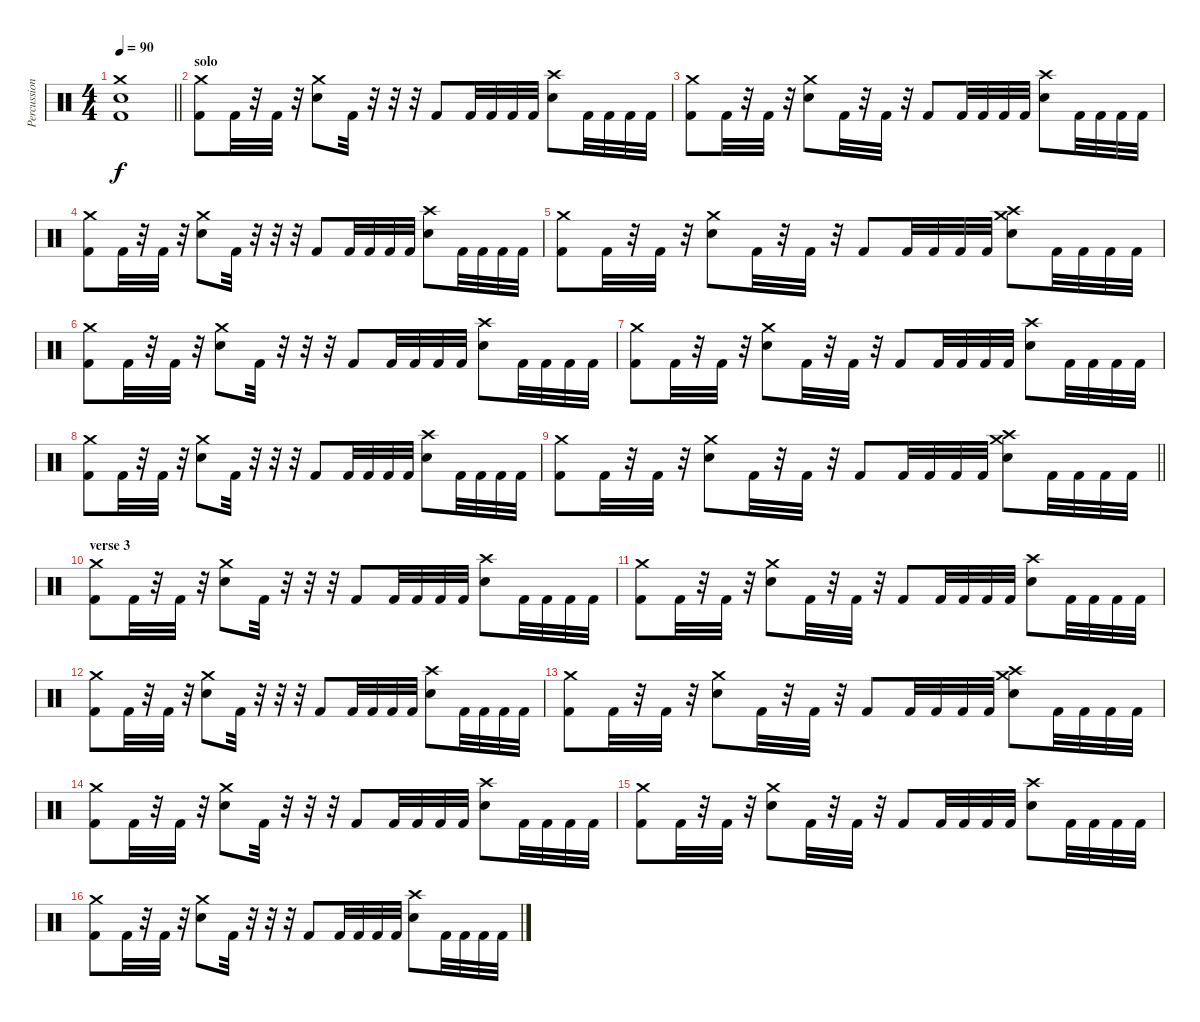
\track ("Percussion" "Percussion") {instrument percussion}
\staff {score}
\articulation defaults
\ts (4 4)
\tempo 90
\clef neutral
\barLineRight lightlight
\ks c
("Crash medium (hit)" "Electric Snare (hit)" "Kick (hit) 2").1{dy f} |
\section ("" "solo")
("Crash medium (hit)" "Kick (hit) 2").8 "Kick (hit) 2".32 r.32 "Kick (hit) 2".32 r.32 ("Crash medium (hit)" "Electric Snare (hit)").8 "Kick (hit) 2".32 r.32 r.32 r.32 "Kick (hit) 2".8 "Kick (hit) 2".32 "Kick (hit) 2".32 "Kick (hit) 2".32 "Kick (hit) 2".32 ("Crash high (hit)" "Electric Snare (hit)").8 "Kick (hit) 2".32 "Kick (hit) 2".32 "Kick (hit) 2".32 "Kick (hit) 2".32 |
("Crash medium (hit)" "Kick (hit) 2").8 "Kick (hit) 2".32 r.32 "Kick (hit) 2".32 r.32 ("Crash medium (hit)" "Electric Snare (hit)").8 "Kick (hit) 2".32 r.32 "Kick (hit) 2".32 r.32 "Kick (hit) 2".8 "Kick (hit) 2".32 "Kick (hit) 2".32 "Kick (hit) 2".32 "Kick (hit) 2".32 ("Crash high (hit)" "Electric Snare (hit)").8 "Kick (hit) 2".32 "Kick (hit) 2".32 "Kick (hit) 2".32 "Kick (hit) 2".32 |
("Crash medium (hit)" "Kick (hit) 2").8 "Kick (hit) 2".32 r.32 "Kick (hit) 2".32 r.32 ("Crash medium (hit)" "Electric Snare (hit)").8 "Kick (hit) 2".32 r.32 r.32 r.32 "Kick (hit) 2".8 "Kick (hit) 2".32 "Kick (hit) 2".32 "Kick (hit) 2".32 "Kick (hit) 2".32 ("Crash high (hit)" "Electric Snare (hit)").8 "Kick (hit) 2".32 "Kick (hit) 2".32 "Kick (hit) 2".32 "Kick (hit) 2".32 |
("Crash medium (hit)" "Kick (hit) 2").8 "Kick (hit) 2".32 r.32 "Kick (hit) 2".32 r.32 ("Crash medium (hit)" "Electric Snare (hit)").8 "Kick (hit) 2".32 r.32 "Kick (hit) 2".32 r.32 "Kick (hit) 2".8 "Kick (hit) 2".32 "Kick (hit) 2".32 "Kick (hit) 2".32 "Kick (hit) 2".32 ("Crash high (hit)" "Crash medium (hit)" "Electric Snare (hit)").8 "Kick (hit) 2".32 "Kick (hit) 2".32 "Kick (hit) 2".32 "Kick (hit) 2".32 |
("Crash medium (hit)" "Kick (hit) 2").8 "Kick (hit) 2".32 r.32 "Kick (hit) 2".32 r.32 ("Crash medium (hit)" "Electric Snare (hit)").8 "Kick (hit) 2".32 r.32 r.32 r.32 "Kick (hit) 2".8 "Kick (hit) 2".32 "Kick (hit) 2".32 "Kick (hit) 2".32 "Kick (hit) 2".32 ("Crash high (hit)" "Electric Snare (hit)").8 "Kick (hit) 2".32 "Kick (hit) 2".32 "Kick (hit) 2".32 "Kick (hit) 2".32 |
("Crash medium (hit)" "Kick (hit) 2").8 "Kick (hit) 2".32 r.32 "Kick (hit) 2".32 r.32 ("Crash medium (hit)" "Electric Snare (hit)").8 "Kick (hit) 2".32 r.32 "Kick (hit) 2".32 r.32 "Kick (hit) 2".8 "Kick (hit) 2".32 "Kick (hit) 2".32 "Kick (hit) 2".32 "Kick (hit) 2".32 ("Crash high (hit)" "Electric Snare (hit)").8 "Kick (hit) 2".32 "Kick (hit) 2".32 "Kick (hit) 2".32 "Kick (hit) 2".32 |
("Crash medium (hit)" "Kick (hit) 2").8 "Kick (hit) 2".32 r.32 "Kick (hit) 2".32 r.32 ("Crash medium (hit)" "Electric Snare (hit)").8 "Kick (hit) 2".32 r.32 r.32 r.32 "Kick (hit) 2".8 "Kick (hit) 2".32 "Kick (hit) 2".32 "Kick (hit) 2".32 "Kick (hit) 2".32 ("Crash high (hit)" "Electric Snare (hit)").8 "Kick (hit) 2".32 "Kick (hit) 2".32 "Kick (hit) 2".32 "Kick (hit) 2".32 |
\barLineRight lightlight
("Crash medium (hit)" "Kick (hit) 2").8 "Kick (hit) 2".32 r.32 "Kick (hit) 2".32 r.32 ("Crash medium (hit)" "Electric Snare (hit)").8 "Kick (hit) 2".32 r.32 "Kick (hit) 2".32 r.32 "Kick (hit) 2".8 "Kick (hit) 2".32 "Kick (hit) 2".32 "Kick (hit) 2".32 "Kick (hit) 2".32 ("Crash high (hit)" "Crash medium (hit)" "Electric Snare (hit)").8 "Kick (hit) 2".32 "Kick (hit) 2".32 "Kick (hit) 2".32 "Kick (hit) 2".32 |
\section ("" "verse 3")
("Crash medium (hit)" "Kick (hit) 2").8 "Kick (hit) 2".32 r.32 "Kick (hit) 2".32 r.32 ("Crash medium (hit)" "Electric Snare (hit)").8 "Kick (hit) 2".32 r.32 r.32 r.32 "Kick (hit) 2".8 "Kick (hit) 2".32 "Kick (hit) 2".32 "Kick (hit) 2".32 "Kick (hit) 2".32 ("Crash high (hit)" "Electric Snare (hit)").8 "Kick (hit) 2".32 "Kick (hit) 2".32 "Kick (hit) 2".32 "Kick (hit) 2".32 |
("Crash medium (hit)" "Kick (hit) 2").8 "Kick (hit) 2".32 r.32 "Kick (hit) 2".32 r.32 ("Crash medium (hit)" "Electric Snare (hit)").8 "Kick (hit) 2".32 r.32 "Kick (hit) 2".32 r.32 "Kick (hit) 2".8 "Kick (hit) 2".32 "Kick (hit) 2".32 "Kick (hit) 2".32 "Kick (hit) 2".32 ("Crash high (hit)" "Electric Snare (hit)").8 "Kick (hit) 2".32 "Kick (hit) 2".32 "Kick (hit) 2".32 "Kick (hit) 2".32 |
("Crash medium (hit)" "Kick (hit) 2").8 "Kick (hit) 2".32 r.32 "Kick (hit) 2".32 r.32 ("Crash medium (hit)" "Electric Snare (hit)").8 "Kick (hit) 2".32 r.32 r.32 r.32 "Kick (hit) 2".8 "Kick (hit) 2".32 "Kick (hit) 2".32 "Kick (hit) 2".32 "Kick (hit) 2".32 ("Crash high (hit)" "Electric Snare (hit)").8 "Kick (hit) 2".32 "Kick (hit) 2".32 "Kick (hit) 2".32 "Kick (hit) 2".32 |
("Crash medium (hit)" "Kick (hit) 2").8 "Kick (hit) 2".32 r.32 "Kick (hit) 2".32 r.32 ("Crash medium (hit)" "Electric Snare (hit)").8 "Kick (hit) 2".32 r.32 "Kick (hit) 2".32 r.32 "Kick (hit) 2".8 "Kick (hit) 2".32 "Kick (hit) 2".32 "Kick (hit) 2".32 "Kick (hit) 2".32 ("Crash high (hit)" "Crash medium (hit)" "Electric Snare (hit)").8 "Kick (hit) 2".32 "Kick (hit) 2".32 "Kick (hit) 2".32 "Kick (hit) 2".32 |
("Crash medium (hit)" "Kick (hit) 2").8 "Kick (hit) 2".32 r.32 "Kick (hit) 2".32 r.32 ("Crash medium (hit)" "Electric Snare (hit)").8 "Kick (hit) 2".32 r.32 r.32 r.32 "Kick (hit) 2".8 "Kick (hit) 2".32 "Kick (hit) 2".32 "Kick (hit) 2".32 "Kick (hit) 2".32 ("Crash high (hit)" "Electric Snare (hit)").8 "Kick (hit) 2".32 "Kick (hit) 2".32 "Kick (hit) 2".32 "Kick (hit) 2".32 |
("Crash medium (hit)" "Kick (hit) 2").8 "Kick (hit) 2".32 r.32 "Kick (hit) 2".32 r.32 ("Crash medium (hit)" "Electric Snare (hit)").8 "Kick (hit) 2".32 r.32 "Kick (hit) 2".32 r.32 "Kick (hit) 2".8 "Kick (hit) 2".32 "Kick (hit) 2".32 "Kick (hit) 2".32 "Kick (hit) 2".32 ("Crash high (hit)" "Electric Snare (hit)").8 "Kick (hit) 2".32 "Kick (hit) 2".32 "Kick (hit) 2".32 "Kick (hit) 2".32 |
("Crash medium (hit)" "Kick (hit) 2").8 "Kick (hit) 2".32 r.32 "Kick (hit) 2".32 r.32 ("Crash medium (hit)" "Electric Snare (hit)").8 "Kick (hit) 2".32 r.32 r.32 r.32 "Kick (hit) 2".8 "Kick (hit) 2".32 "Kick (hit) 2".32 "Kick (hit) 2".32 "Kick (hit) 2".32 ("Crash high (hit)" "Electric Snare (hit)").8 "Kick (hit) 2".32 "Kick (hit) 2".32 "Kick (hit) 2".32 "Kick (hit) 2".32
